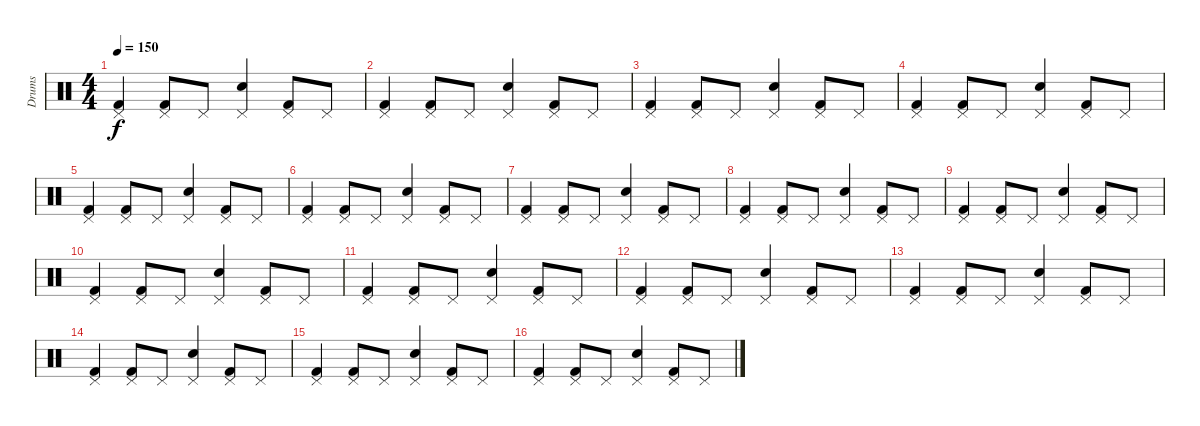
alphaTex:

\track ("Drums" "Drums") {instrument percussion}
\staff {score}
\articulation defaults
\ts (4 4)
\tempo 150
\clef neutral
\ks c
("Pedal Hi-Hat (hit)" "Kick (hit) 2").4{dy f} ("Pedal Hi-Hat (hit)" "Kick (hit) 2").8 "Pedal Hi-Hat (hit)".8 ("Pedal Hi-Hat (hit)" "Snare (hit) 2").4 ("Pedal Hi-Hat (hit)" "Kick (hit) 2").8 "Pedal Hi-Hat (hit)".8 |
("Pedal Hi-Hat (hit)" "Kick (hit) 2").4 ("Pedal Hi-Hat (hit)" "Kick (hit) 2").8 "Pedal Hi-Hat (hit)".8 ("Pedal Hi-Hat (hit)" "Snare (hit) 2").4 ("Pedal Hi-Hat (hit)" "Kick (hit) 2").8 "Pedal Hi-Hat (hit)".8 |
("Pedal Hi-Hat (hit)" "Kick (hit) 2").4 ("Pedal Hi-Hat (hit)" "Kick (hit) 2").8 "Pedal Hi-Hat (hit)".8 ("Pedal Hi-Hat (hit)" "Snare (hit) 2").4 ("Pedal Hi-Hat (hit)" "Kick (hit) 2").8 "Pedal Hi-Hat (hit)".8 |
("Pedal Hi-Hat (hit)" "Kick (hit) 2").4 ("Pedal Hi-Hat (hit)" "Kick (hit) 2").8 "Pedal Hi-Hat (hit)".8 ("Pedal Hi-Hat (hit)" "Snare (hit) 2").4 ("Pedal Hi-Hat (hit)" "Kick (hit) 2").8 "Pedal Hi-Hat (hit)".8 |
("Pedal Hi-Hat (hit)" "Kick (hit) 2").4 ("Pedal Hi-Hat (hit)" "Kick (hit) 2").8 "Pedal Hi-Hat (hit)".8 ("Pedal Hi-Hat (hit)" "Snare (hit) 2").4 ("Pedal Hi-Hat (hit)" "Kick (hit) 2").8 "Pedal Hi-Hat (hit)".8 |
("Pedal Hi-Hat (hit)" "Kick (hit) 2").4 ("Pedal Hi-Hat (hit)" "Kick (hit) 2").8 "Pedal Hi-Hat (hit)".8 ("Pedal Hi-Hat (hit)" "Snare (hit) 2").4 ("Pedal Hi-Hat (hit)" "Kick (hit) 2").8 "Pedal Hi-Hat (hit)".8 |
("Pedal Hi-Hat (hit)" "Kick (hit) 2").4 ("Pedal Hi-Hat (hit)" "Kick (hit) 2").8 "Pedal Hi-Hat (hit)".8 ("Pedal Hi-Hat (hit)" "Snare (hit) 2").4 ("Pedal Hi-Hat (hit)" "Kick (hit) 2").8 "Pedal Hi-Hat (hit)".8 |
("Pedal Hi-Hat (hit)" "Kick (hit) 2").4 ("Pedal Hi-Hat (hit)" "Kick (hit) 2").8 "Pedal Hi-Hat (hit)".8 ("Pedal Hi-Hat (hit)" "Snare (hit) 2").4 ("Pedal Hi-Hat (hit)" "Kick (hit) 2").8 "Pedal Hi-Hat (hit)".8 |
("Pedal Hi-Hat (hit)" "Kick (hit) 2").4 ("Pedal Hi-Hat (hit)" "Kick (hit) 2").8 "Pedal Hi-Hat (hit)".8 ("Pedal Hi-Hat (hit)" "Snare (hit) 2").4 ("Pedal Hi-Hat (hit)" "Kick (hit) 2").8 "Pedal Hi-Hat (hit)".8 |
("Pedal Hi-Hat (hit)" "Kick (hit) 2").4 ("Pedal Hi-Hat (hit)" "Kick (hit) 2").8 "Pedal Hi-Hat (hit)".8 ("Pedal Hi-Hat (hit)" "Snare (hit) 2").4 ("Pedal Hi-Hat (hit)" "Kick (hit) 2").8 "Pedal Hi-Hat (hit)".8 |
("Pedal Hi-Hat (hit)" "Kick (hit) 2").4 ("Pedal Hi-Hat (hit)" "Kick (hit) 2").8 "Pedal Hi-Hat (hit)".8 ("Pedal Hi-Hat (hit)" "Snare (hit) 2").4 ("Pedal Hi-Hat (hit)" "Kick (hit) 2").8 "Pedal Hi-Hat (hit)".8 |
("Pedal Hi-Hat (hit)" "Kick (hit) 2").4 ("Pedal Hi-Hat (hit)" "Kick (hit) 2").8 "Pedal Hi-Hat (hit)".8 ("Pedal Hi-Hat (hit)" "Snare (hit) 2").4 ("Pedal Hi-Hat (hit)" "Kick (hit) 2").8 "Pedal Hi-Hat (hit)".8 |
("Pedal Hi-Hat (hit)" "Kick (hit) 2").4 ("Pedal Hi-Hat (hit)" "Kick (hit) 2").8 "Pedal Hi-Hat (hit)".8 ("Pedal Hi-Hat (hit)" "Snare (hit) 2").4 ("Pedal Hi-Hat (hit)" "Kick (hit) 2").8 "Pedal Hi-Hat (hit)".8 |
("Pedal Hi-Hat (hit)" "Kick (hit) 2").4 ("Pedal Hi-Hat (hit)" "Kick (hit) 2").8 "Pedal Hi-Hat (hit)".8 ("Pedal Hi-Hat (hit)" "Snare (hit) 2").4 ("Pedal Hi-Hat (hit)" "Kick (hit) 2").8 "Pedal Hi-Hat (hit)".8 |
("Pedal Hi-Hat (hit)" "Kick (hit) 2").4 ("Pedal Hi-Hat (hit)" "Kick (hit) 2").8 "Pedal Hi-Hat (hit)".8 ("Pedal Hi-Hat (hit)" "Snare (hit) 2").4 ("Pedal Hi-Hat (hit)" "Kick (hit) 2").8 "Pedal Hi-Hat (hit)".8 |
("Pedal Hi-Hat (hit)" "Kick (hit) 2").4 ("Pedal Hi-Hat (hit)" "Kick (hit) 2").8 "Pedal Hi-Hat (hit)".8 ("Pedal Hi-Hat (hit)" "Snare (hit) 2").4 ("Pedal Hi-Hat (hit)" "Kick (hit) 2").8 "Pedal Hi-Hat (hit)".8
